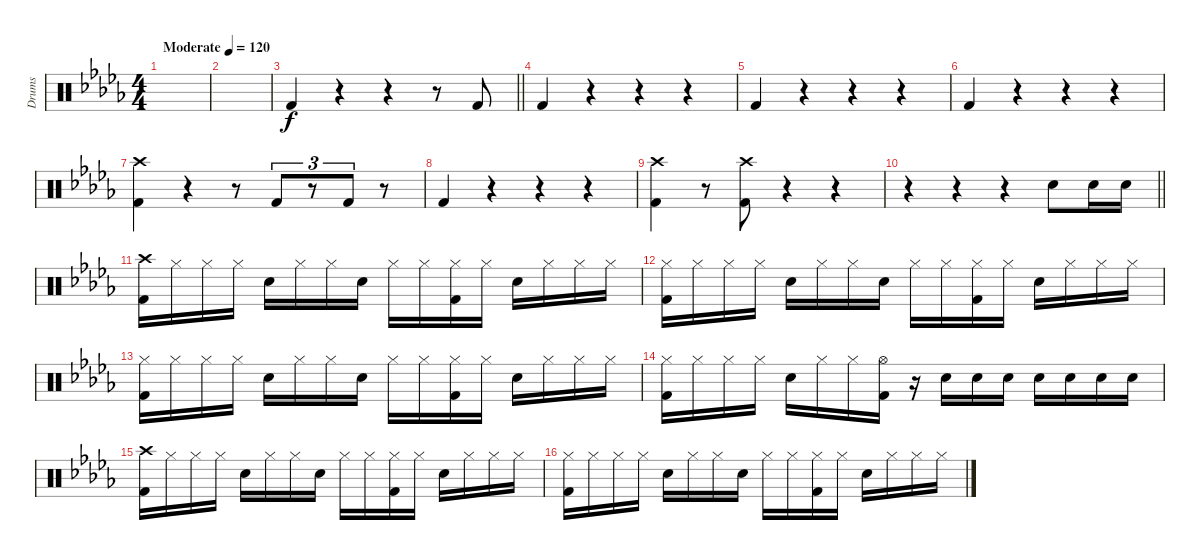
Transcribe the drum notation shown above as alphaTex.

\track ("Drums" "Drums") {instrument percussion}
\staff {score}
\articulation defaults
\ts (4 4)
\tempo (120 "Moderate")
\clef neutral
\ks db
|
|
\barLineRight lightlight "Kick (hit) 2".4
r.4 r.4 r.8 "Kick (hit) 2".8 |
"Kick (hit) 2".4 r.4 r.4 r.4 |
"Kick (hit) 2".4 r.4 r.4 r.4 |
"Kick (hit) 2".4 r.4 r.4 r.4 |
("Crash high (hit)" "Kick (hit) 2").4 r.4 r.8 "Kick (hit) 2".8{tu (3 2)} r.8{tu (3 2)} "Kick (hit) 2".8{tu (3 2)} r.8 |
"Kick (hit) 2".4 r.4 r.4 r.4 |
("Crash high (hit)" "Kick (hit) 2").4 r.8 ("Crash high (hit)" "Kick (hit) 2").8 r.4 r.4 |
\barLineRight lightlight
r.4 r.4 r.4 "Snare (hit) 2".8 "Snare (hit) 2".16 "Snare (hit) 2".16 |
("Crash high (hit)" "Kick (hit) 2").16 "Hi-Hat (closed)".16 "Hi-Hat (closed)".16 "Hi-Hat (closed)".16 "Snare (hit) 2".16 "Hi-Hat (closed)".16 "Hi-Hat (closed)".16 "Snare (hit) 2".16 "Hi-Hat (closed)".16 "Hi-Hat (closed)".16 ("Hi-Hat (closed)" "Kick (hit) 2").16 "Hi-Hat (closed)".16 "Snare (hit) 2".16 "Hi-Hat (closed)".16 "Hi-Hat (closed)".16 "Hi-Hat (closed)".16 |
("Hi-Hat (closed)" "Kick (hit) 2").16 "Hi-Hat (closed)".16 "Hi-Hat (closed)".16 "Hi-Hat (closed)".16 "Snare (hit) 2".16 "Hi-Hat (closed)".16 "Hi-Hat (closed)".16 "Snare (hit) 2".16 "Hi-Hat (closed)".16 "Hi-Hat (closed)".16 ("Hi-Hat (closed)" "Kick (hit) 2").16 "Hi-Hat (closed)".16 "Snare (hit) 2".16{txt ""} "Hi-Hat (closed)".16 "Hi-Hat (closed)".16 "Hi-Hat (closed)".16 |
("Hi-Hat (closed)" "Kick (hit) 2").16 "Hi-Hat (closed)".16 "Hi-Hat (closed)".16 "Hi-Hat (closed)".16 "Snare (hit) 2".16 "Hi-Hat (closed)".16 "Hi-Hat (closed)".16 "Snare (hit) 2".16 "Hi-Hat (closed)".16 "Hi-Hat (closed)".16 ("Hi-Hat (closed)" "Kick (hit) 2").16 "Hi-Hat (closed)".16 "Snare (hit) 2".16 "Hi-Hat (closed)".16 "Hi-Hat (closed)".16 "Hi-Hat (closed)".16 |
("Hi-Hat (closed)" "Kick (hit) 2").16 "Hi-Hat (closed)".16 "Hi-Hat (closed)".16 "Hi-Hat (closed)".16 "Snare (hit) 2".16 "Hi-Hat (closed)".16 "Hi-Hat (closed)".16 ("Hi-Hat (open)" "Kick (hit) 2").16 r.16 "Snare (hit) 2".16 "Snare (hit) 2".16 "Snare (hit) 2".16 "Snare (hit) 2".16 "Snare (hit) 2".16 "Snare (hit) 2".16 "Snare (hit) 2".16 |
("Crash high (hit)" "Kick (hit) 2").16 "Hi-Hat (closed)".16 "Hi-Hat (closed)".16 "Hi-Hat (closed)".16 "Snare (hit) 2".16 "Hi-Hat (closed)".16 "Hi-Hat (closed)".16 "Snare (hit) 2".16 "Hi-Hat (closed)".16 "Hi-Hat (closed)".16 ("Hi-Hat (closed)" "Kick (hit) 2").16 "Hi-Hat (closed)".16 "Snare (hit) 2".16 "Hi-Hat (closed)".16 "Hi-Hat (closed)".16 "Hi-Hat (closed)".16 |
("Hi-Hat (closed)" "Kick (hit) 2").16 "Hi-Hat (closed)".16 "Hi-Hat (closed)".16 "Hi-Hat (closed)".16 "Snare (hit) 2".16 "Hi-Hat (closed)".16 "Hi-Hat (closed)".16 "Snare (hit) 2".16 "Hi-Hat (closed)".16 "Hi-Hat (closed)".16 ("Hi-Hat (closed)" "Kick (hit) 2").16 "Hi-Hat (closed)".16 "Snare (hit) 2".16 "Hi-Hat (closed)".16 "Hi-Hat (closed)".16 "Hi-Hat (closed)".16
